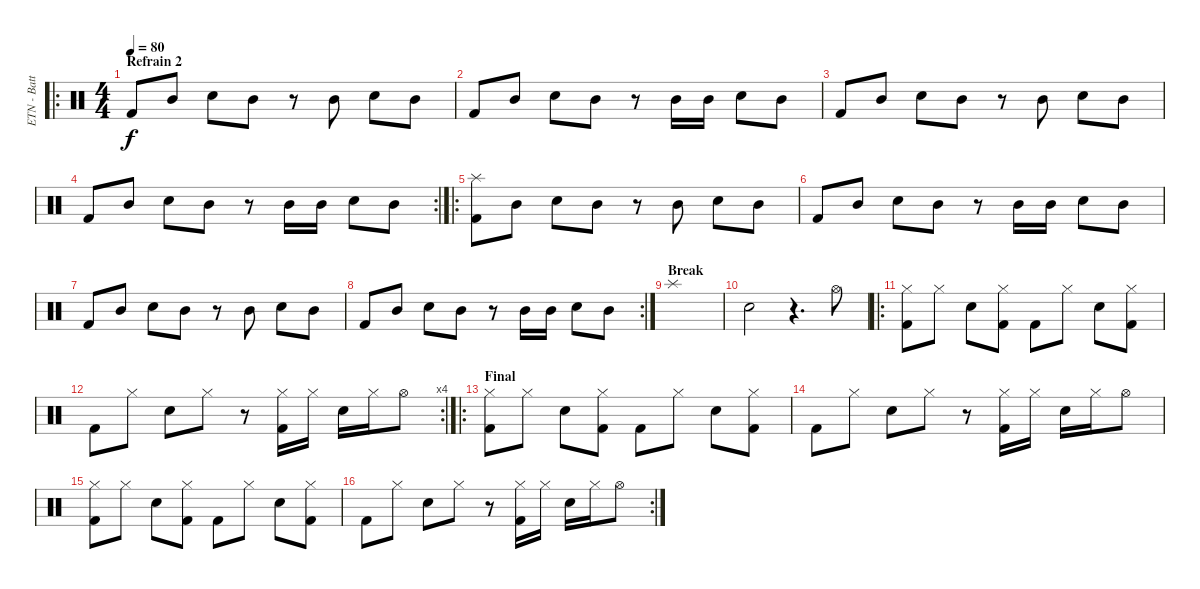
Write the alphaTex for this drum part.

\track ("ETN - Batterie" "ETN - Batt") {instrument percussion}
\staff {score}
\articulation defaults
\ro
\ts (4 4)
\section ("" "Refrain 2")
\tempo 80
\clef neutral
\ks c "Kick (hit) 2".8{dy f} "Mid Tom (hit)".8 "Snare (hit) 2".8 "Mid Tom (hit)".8
r.8 "Mid Tom (hit)".8 "Snare (hit) 2".8 "Mid Tom (hit)".8 |
"Kick (hit) 2".8 "Mid Tom (hit)".8 "Snare (hit) 2".8 "Mid Tom (hit)".8 r.8 "Mid Tom (hit)".16 "Mid Tom (hit)".16 "Snare (hit) 2".8 "Mid Tom (hit)".8 |
"Kick (hit) 2".8 "Mid Tom (hit)".8 "Snare (hit) 2".8 "Mid Tom (hit)".8 r.8 "Mid Tom (hit)".8 "Snare (hit) 2".8 "Mid Tom (hit)".8 |
\rc 2 "Kick (hit) 2".8 "Mid Tom (hit)".8 "Snare (hit) 2".8 "Mid Tom (hit)".8
r.8 "Mid Tom (hit)".16 "Mid Tom (hit)".16 "Snare (hit) 2".8 "Mid Tom (hit)".8 |
\ro
("Splash (hit)" "Kick (hit) 2").8 "Mid Tom (hit)".8 "Snare (hit) 2".8 "Mid Tom (hit)".8 r.8 "Mid Tom (hit)".8 "Snare (hit) 2".8 "Mid Tom (hit)".8 |
"Kick (hit) 2".8 "Mid Tom (hit)".8 "Snare (hit) 2".8 "Mid Tom (hit)".8 r.8 "Mid Tom (hit)".16 "Mid Tom (hit)".16 "Snare (hit) 2".8 "Mid Tom (hit)".8 |
"Kick (hit) 2".8 "Mid Tom (hit)".8 "Snare (hit) 2".8 "Mid Tom (hit)".8 r.8 "Mid Tom (hit)".8 "Snare (hit) 2".8 "Mid Tom (hit)".8 |
\rc 2 "Kick (hit) 2".8 "Mid Tom (hit)".8 "Snare (hit) 2".8 "Mid Tom (hit)".8
r.8 "Mid Tom (hit)".16 "Mid Tom (hit)".16 "Snare (hit) 2".8 "Mid Tom (hit)".8 |
\section ("" "Break")
"Splash (hit)".1 |
"Electric Snare (hit)".2 r.4{d} "Hi-Hat (open)".8 |
\ro
("Hi-Hat (closed)" "Kick (hit) 2").8 "Hi-Hat (closed)".8 "Snare (hit) 2".8 ("Hi-Hat (closed)" "Kick (hit) 2").8 "Kick (hit) 2".8 "Hi-Hat (closed)".8 "Snare (hit) 2".8 ("Hi-Hat (closed)" "Kick (hit) 2").8 |
\rc 4 "Kick (hit) 2".8 "Hi-Hat (closed)".8 "Snare (hit) 2".8 "Hi-Hat (closed)".8
r.8 ("Hi-Hat (closed)" "Kick (hit) 2").16 "Hi-Hat (closed)".16 "Snare (hit) 2".16 "Hi-Hat (closed)".16 "Hi-Hat (open)".8 |
\ro
\section ("" "Final")
("Hi-Hat (closed)" "Kick (hit) 2").8 "Hi-Hat (closed)".8 "Snare (hit) 2".8 ("Hi-Hat (closed)" "Kick (hit) 2").8 "Kick (hit) 2".8 "Hi-Hat (closed)".8 "Snare (hit) 2".8 ("Hi-Hat (closed)" "Kick (hit) 2").8 |
"Kick (hit) 2".8 "Hi-Hat (closed)".8 "Snare (hit) 2".8 "Hi-Hat (closed)".8 r.8 ("Hi-Hat (closed)" "Kick (hit) 2").16 "Hi-Hat (closed)".16 "Snare (hit) 2".16 "Hi-Hat (closed)".16 "Hi-Hat (open)".8 |
("Hi-Hat (closed)" "Kick (hit) 2").8 "Hi-Hat (closed)".8 "Snare (hit) 2".8 ("Hi-Hat (closed)" "Kick (hit) 2").8 "Kick (hit) 2".8 "Hi-Hat (closed)".8 "Snare (hit) 2".8 ("Hi-Hat (closed)" "Kick (hit) 2").8 |
\rc 2 "Kick (hit) 2".8 "Hi-Hat (closed)".8 "Snare (hit) 2".8 "Hi-Hat (closed)".8
r.8 ("Hi-Hat (closed)" "Kick (hit) 2").16 "Hi-Hat (closed)".16 "Snare (hit) 2".16 "Hi-Hat (closed)".16 "Hi-Hat (open)".8
